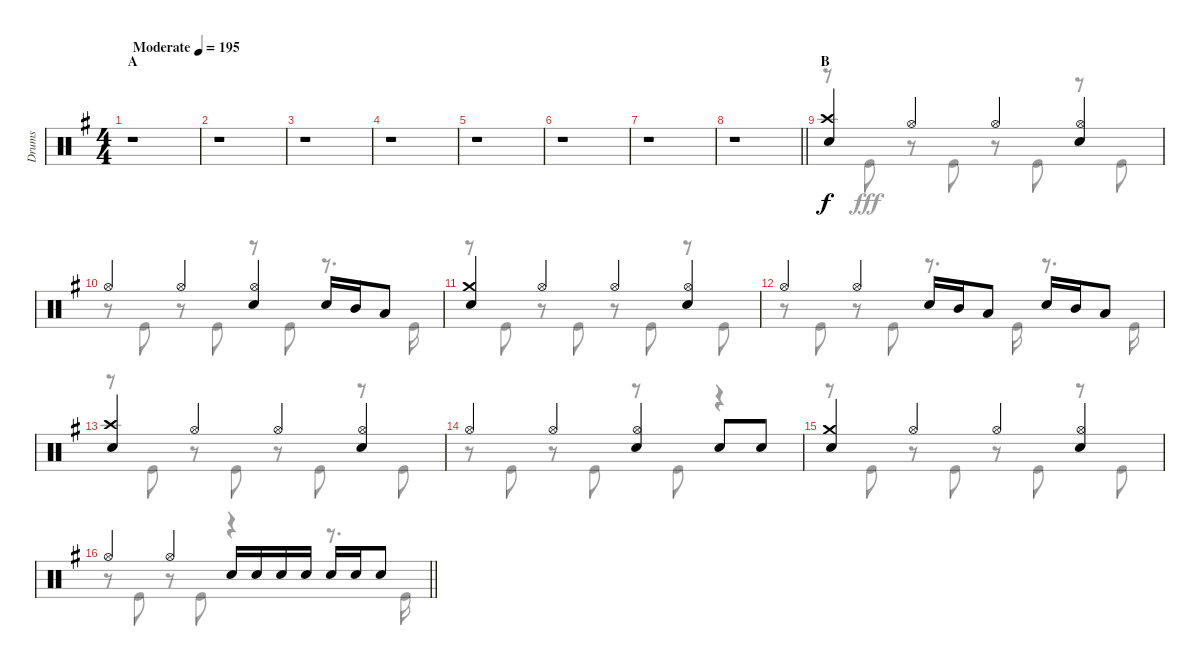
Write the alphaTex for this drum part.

\track ("Drums" "Drums") {instrument percussion}
\staff {score}
\articulation defaults
\voice
\ts (4 4)
\section ("" "A")
\tempo (195 "Moderate")
\clef neutral
\ks g
r.1{dy f} |
r.1 |
r.1 |
r.1 |
r.1 |
r.1 |
r.1 |
\barLineRight lightlight
r.1 |
\section ("" "B")
("Crash high (hit)" "Snare (hit) 2").4 "Hi-Hat (open)".4 "Hi-Hat (open)".4 ("Hi-Hat (open)" "Snare (hit) 2").4 |
"Hi-Hat (open)".4 "Hi-Hat (open)".4 ("Hi-Hat (open)" "Snare (hit) 2").4 "Snare (hit) 2".16 "Mid Tom (hit)".16 "Low Tom (hit)".8 |
("Crash medium (hit)" "Snare (hit) 2").4 "Hi-Hat (open)".4 "Hi-Hat (open)".4 ("Hi-Hat (open)" "Snare (hit) 2").4 |
"Hi-Hat (open)".4 "Hi-Hat (open)".4 "Snare (hit) 2".16 "Mid Tom (hit)".16 "Low Tom (hit)".8 "Snare (hit) 2".16 "Mid Tom (hit)".16 "Low Tom (hit)".8 |
("Crash high (hit)" "Snare (hit) 2").4 "Hi-Hat (open)".4 "Hi-Hat (open)".4 ("Hi-Hat (open)" "Snare (hit) 2").4 |
"Hi-Hat (open)".4 "Hi-Hat (open)".4 ("Hi-Hat (open)" "Snare (hit) 2").4 "Snare (hit) 2".8 "Snare (hit) 2".8 |
("Crash medium (hit)" "Snare (hit) 2").4 "Hi-Hat (open)".4 "Hi-Hat (open)".4 ("Hi-Hat (open)" "Snare (hit) 2").4 |
\barLineRight lightlight "Hi-Hat (open)".4 "Hi-Hat (open)".4 "Snare (hit) 2".16 "Snare (hit) 2".16 "Snare (hit) 2".16 "Snare (hit) 2".16 "Snare (hit) 2".16 "Snare (hit) 2".16 "Snare (hit) 2".8
\voice
\clef neutral
\ottava regular
\simile none
\ks g
r.1{dy fff} |
r.1 |
r.1 |
r.1 |
r.1 |
r.1 |
r.1 |
\barLineRight lightlight
r.1 |
r.8 "Kick (hit)".8 r.8 "Kick (hit)".8 r.8 "Kick (hit)".8 r.8 "Kick (hit)".8 |
r.8 "Kick (hit)".8 r.8 "Kick (hit)".8 r.8 "Kick (hit)".8 r.8{d} "Kick (hit)".16 |
r.8 "Kick (hit)".8 r.8 "Kick (hit)".8 r.8 "Kick (hit)".8 r.8 "Kick (hit)".8 |
r.8 "Kick (hit)".8 r.8 "Kick (hit)".8 r.8{d} "Kick (hit)".16 r.8{d} "Kick (hit)".16 |
r.8 "Kick (hit)".8 r.8 "Kick (hit)".8 r.8 "Kick (hit)".8 r.8 "Kick (hit)".8 |
r.8 "Kick (hit)".8 r.8 "Kick (hit)".8 r.8 "Kick (hit)".8 r.4 |
r.8 "Kick (hit)".8 r.8 "Kick (hit)".8 r.8 "Kick (hit)".8 r.8 "Kick (hit)".8 |
\barLineRight lightlight
r.8 "Kick (hit)".8 r.8 "Kick (hit)".8 r.4 r.8{d} "Kick (hit)".16
